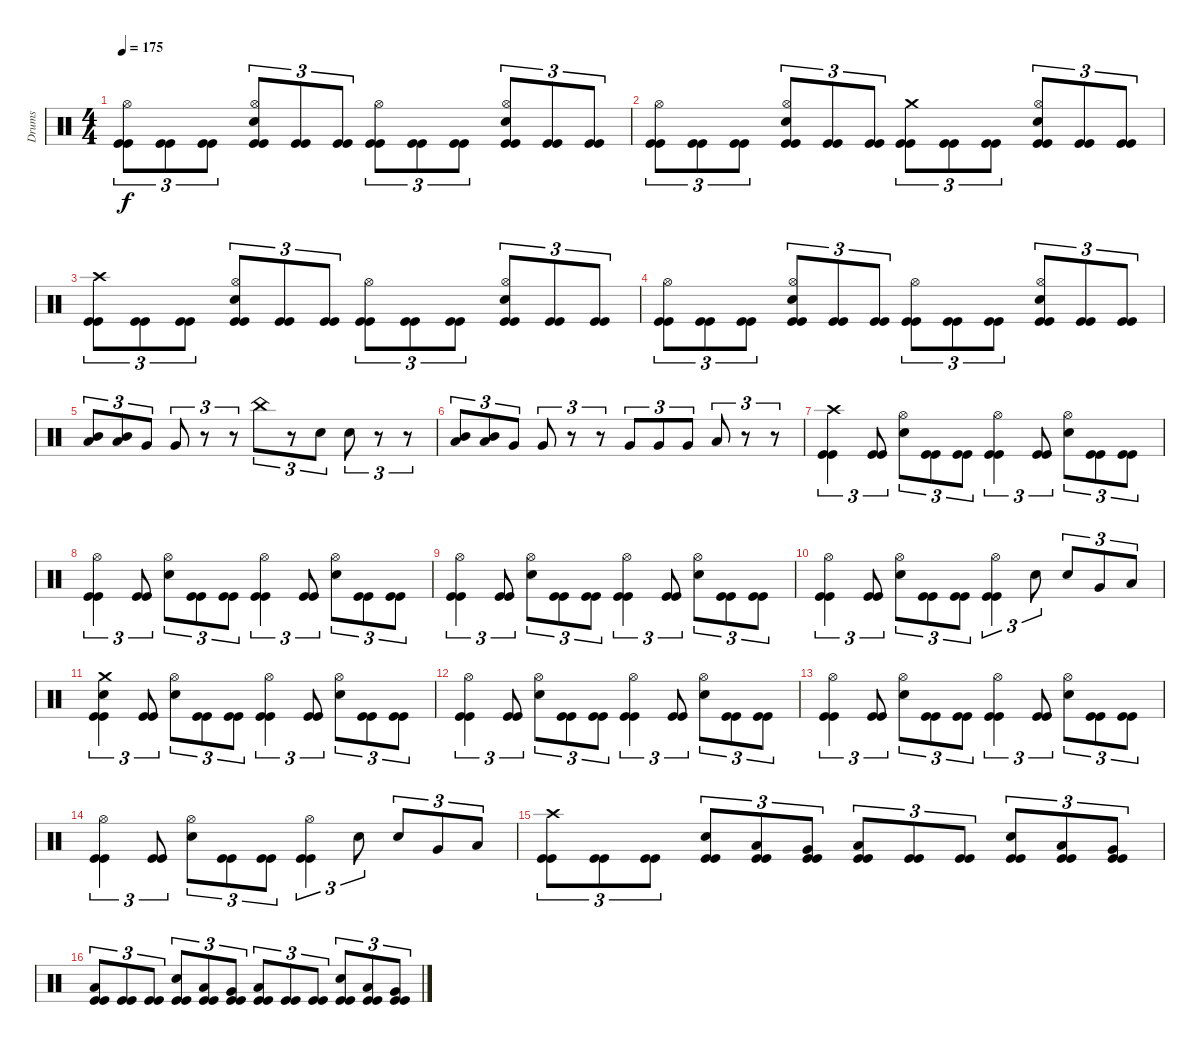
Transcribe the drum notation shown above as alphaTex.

\track ("Drums" "Drums") {instrument percussion}
\staff {score}
\articulation defaults
\ts (4 4)
\tempo 175
\clef neutral
\ks c
("Kick (hit)" "Kick (hit)" "Hi-Hat (open)").8{tu (3 2) dy f} ("Kick (hit)" "Kick (hit)").8{tu (3 2)} ("Kick (hit)" "Kick (hit)").8{tu (3 2)} ("Kick (hit)" "Kick (hit)" "Snare (hit) 2" "Hi-Hat (open)").8{tu (3 2)} ("Kick (hit)" "Kick (hit)").8{tu (3 2)} ("Kick (hit)" "Kick (hit)").8{tu (3 2)} ("Kick (hit)" "Kick (hit)" "Hi-Hat (open)").8{tu (3 2)} ("Kick (hit)" "Kick (hit)").8{tu (3 2)} ("Kick (hit)" "Kick (hit)").8{tu (3 2)} ("Kick (hit)" "Kick (hit)" "Snare (hit) 2" "Hi-Hat (open)").8{tu (3 2)} ("Kick (hit)" "Kick (hit)").8{tu (3 2)} ("Kick (hit)" "Kick (hit)").8{tu (3 2)} |
("Kick (hit)" "Kick (hit)" "Hi-Hat (open)").8{tu (3 2)} ("Kick (hit)" "Kick (hit)").8{tu (3 2)} ("Kick (hit)" "Kick (hit)").8{tu (3 2)} ("Kick (hit)" "Kick (hit)" "Snare (hit) 2" "Hi-Hat (open)").8{tu (3 2)} ("Kick (hit)" "Kick (hit)").8{tu (3 2)} ("Kick (hit)" "Kick (hit)").8{tu (3 2)} ("Kick (hit)" "Kick (hit)" "Crash medium (hit)").8{tu (3 2)} ("Kick (hit)" "Kick (hit)").8{tu (3 2)} ("Kick (hit)" "Kick (hit)").8{tu (3 2)} ("Kick (hit)" "Kick (hit)" "Snare (hit) 2" "Hi-Hat (open)").8{tu (3 2)} ("Kick (hit)" "Kick (hit)").8{tu (3 2)} ("Kick (hit)" "Kick (hit)").8{tu (3 2)} |
("Kick (hit)" "Kick (hit)" "Crash high (hit)").8{tu (3 2)} ("Kick (hit)" "Kick (hit)").8{tu (3 2)} ("Kick (hit)" "Kick (hit)").8{tu (3 2)} ("Kick (hit)" "Kick (hit)" "Snare (hit) 2" "Hi-Hat (open)").8{tu (3 2)} ("Kick (hit)" "Kick (hit)").8{tu (3 2)} ("Kick (hit)" "Kick (hit)").8{tu (3 2)} ("Kick (hit)" "Kick (hit)" "Hi-Hat (open)").8{tu (3 2)} ("Kick (hit)" "Kick (hit)").8{tu (3 2)} ("Kick (hit)" "Kick (hit)").8{tu (3 2)} ("Kick (hit)" "Kick (hit)" "Snare (hit) 2" "Hi-Hat (open)").8{tu (3 2)} ("Kick (hit)" "Kick (hit)").8{tu (3 2)} ("Kick (hit)" "Kick (hit)").8{tu (3 2)} |
("Kick (hit)" "Kick (hit)" "Hi-Hat (open)").8{tu (3 2)} ("Kick (hit)" "Kick (hit)").8{tu (3 2)} ("Kick (hit)" "Kick (hit)").8{tu (3 2)} ("Kick (hit)" "Kick (hit)" "Snare (hit) 2" "Hi-Hat (open)").8{tu (3 2)} ("Kick (hit)" "Kick (hit)").8{tu (3 2)} ("Kick (hit)" "Kick (hit)").8{tu (3 2)} ("Kick (hit)" "Kick (hit)" "Hi-Hat (open)").8{tu (3 2)} ("Kick (hit)" "Kick (hit)").8{tu (3 2)} ("Kick (hit)" "Kick (hit)").8{tu (3 2)} ("Kick (hit)" "Kick (hit)" "Snare (hit) 2" "Hi-Hat (open)").8{tu (3 2)} ("Kick (hit)" "Kick (hit)").8{tu (3 2)} ("Kick (hit)" "Kick (hit)").8{tu (3 2)} |
("Mid Tom (hit)" "Low Tom (hit)").8{tu (3 2)} ("Mid Tom (hit)" "Low Tom (hit)").8{tu (3 2)} "Very Low Tom (hit)".8{tu (3 2)} "Very Low Tom (hit)".8{tu (3 2)} r.8{tu (3 2)} r.8{tu (3 2)} "China (hit)".8{tu (3 2)} r.8{tu (3 2)} "Snare (hit) 2".8{tu (3 2)} "Snare (hit) 2".8{tu (3 2)} r.8{tu (3 2)} r.8{tu (3 2)} |
("Mid Tom (hit)" "Low Tom (hit)").8{tu (3 2)} ("Mid Tom (hit)" "Low Tom (hit)").8{tu (3 2)} "Very Low Tom (hit)".8{tu (3 2)} "Very Low Tom (hit)".8{tu (3 2)} r.8{tu (3 2)} r.8{tu (3 2)} "Very Low Tom (hit)".8{tu (3 2)} "Very Low Tom (hit)".8{tu (3 2)} "Very Low Tom (hit)".8{tu (3 2)} "Low Floor Tom (hit)".8{tu (3 2)} r.8{tu (3 2)} r.8{tu (3 2)} |
("Kick (hit)" "Kick (hit)" "Crash high (hit)").4{tu (3 2)} ("Kick (hit)" "Kick (hit)").8{tu (3 2)} ("Snare (hit) 2" "Hi-Hat (open)").8{tu (3 2)} ("Kick (hit)" "Kick (hit)").8{tu (3 2)} ("Kick (hit)" "Kick (hit)").8{tu (3 2)} ("Kick (hit)" "Kick (hit)" "Hi-Hat (open)").4{tu (3 2)} ("Kick (hit)" "Kick (hit)").8{tu (3 2)} ("Snare (hit) 2" "Hi-Hat (open)").8{tu (3 2)} ("Kick (hit)" "Kick (hit)").8{tu (3 2)} ("Kick (hit)" "Kick (hit)").8{tu (3 2)} |
("Kick (hit)" "Kick (hit)" "Hi-Hat (open)").4{tu (3 2)} ("Kick (hit)" "Kick (hit)").8{tu (3 2)} ("Snare (hit) 2" "Hi-Hat (open)").8{tu (3 2)} ("Kick (hit)" "Kick (hit)").8{tu (3 2)} ("Kick (hit)" "Kick (hit)").8{tu (3 2)} ("Kick (hit)" "Kick (hit)" "Hi-Hat (open)").4{tu (3 2)} ("Kick (hit)" "Kick (hit)").8{tu (3 2)} ("Snare (hit) 2" "Hi-Hat (open)").8{tu (3 2)} ("Kick (hit)" "Kick (hit)").8{tu (3 2)} ("Kick (hit)" "Kick (hit)").8{tu (3 2)} |
("Kick (hit)" "Kick (hit)" "Hi-Hat (open)").4{tu (3 2)} ("Kick (hit)" "Kick (hit)").8{tu (3 2)} ("Snare (hit) 2" "Hi-Hat (open)").8{tu (3 2)} ("Kick (hit)" "Kick (hit)").8{tu (3 2)} ("Kick (hit)" "Kick (hit)").8{tu (3 2)} ("Kick (hit)" "Kick (hit)" "Hi-Hat (open)").4{tu (3 2)} ("Kick (hit)" "Kick (hit)").8{tu (3 2)} ("Snare (hit) 2" "Hi-Hat (open)").8{tu (3 2)} ("Kick (hit)" "Kick (hit)").8{tu (3 2)} ("Kick (hit)" "Kick (hit)").8{tu (3 2)} |
("Kick (hit)" "Kick (hit)" "Hi-Hat (open)").4{tu (3 2)} ("Kick (hit)" "Kick (hit)").8{tu (3 2)} ("Snare (hit) 2" "Hi-Hat (open)").8{tu (3 2)} ("Kick (hit)" "Kick (hit)").8{tu (3 2)} ("Kick (hit)" "Kick (hit)").8{tu (3 2)} ("Kick (hit)" "Kick (hit)" "Hi-Hat (open)").4{tu (3 2)} "Snare (hit) 2".8{tu (3 2)} "Snare (hit) 2".8{tu (3 2)} "Very Low Tom (hit)".8{tu (3 2)} "Low Floor Tom (hit)".8{tu (3 2)} |
("Kick (hit)" "Kick (hit)" "Crash medium (hit)" "Snare (hit) 2").4{tu (3 2)} ("Kick (hit)" "Kick (hit)").8{tu (3 2)} ("Snare (hit) 2" "Hi-Hat (open)").8{tu (3 2)} ("Kick (hit)" "Kick (hit)").8{tu (3 2)} ("Kick (hit)" "Kick (hit)").8{tu (3 2)} ("Kick (hit)" "Kick (hit)" "Hi-Hat (open)").4{tu (3 2)} ("Kick (hit)" "Kick (hit)").8{tu (3 2)} ("Snare (hit) 2" "Hi-Hat (open)").8{tu (3 2)} ("Kick (hit)" "Kick (hit)").8{tu (3 2)} ("Kick (hit)" "Kick (hit)").8{tu (3 2)} |
("Kick (hit)" "Kick (hit)" "Hi-Hat (open)").4{tu (3 2)} ("Kick (hit)" "Kick (hit)").8{tu (3 2)} ("Snare (hit) 2" "Hi-Hat (open)").8{tu (3 2)} ("Kick (hit)" "Kick (hit)").8{tu (3 2)} ("Kick (hit)" "Kick (hit)").8{tu (3 2)} ("Kick (hit)" "Kick (hit)" "Hi-Hat (open)").4{tu (3 2)} ("Kick (hit)" "Kick (hit)").8{tu (3 2)} ("Snare (hit) 2" "Hi-Hat (open)").8{tu (3 2)} ("Kick (hit)" "Kick (hit)").8{tu (3 2)} ("Kick (hit)" "Kick (hit)").8{tu (3 2)} |
("Kick (hit)" "Kick (hit)" "Hi-Hat (open)").4{tu (3 2)} ("Kick (hit)" "Kick (hit)").8{tu (3 2)} ("Snare (hit) 2" "Hi-Hat (open)").8{tu (3 2)} ("Kick (hit)" "Kick (hit)").8{tu (3 2)} ("Kick (hit)" "Kick (hit)").8{tu (3 2)} ("Kick (hit)" "Kick (hit)" "Hi-Hat (open)").4{tu (3 2)} ("Kick (hit)" "Kick (hit)").8{tu (3 2)} ("Snare (hit) 2" "Hi-Hat (open)").8{tu (3 2)} ("Kick (hit)" "Kick (hit)").8{tu (3 2)} ("Kick (hit)" "Kick (hit)").8{tu (3 2)} |
("Kick (hit)" "Kick (hit)" "Hi-Hat (open)").4{tu (3 2)} ("Kick (hit)" "Kick (hit)").8{tu (3 2)} ("Snare (hit) 2" "Hi-Hat (open)").8{tu (3 2)} ("Kick (hit)" "Kick (hit)").8{tu (3 2)} ("Kick (hit)" "Kick (hit)").8{tu (3 2)} ("Kick (hit)" "Kick (hit)" "Hi-Hat (open)").4{tu (3 2)} "Snare (hit) 2".8{tu (3 2)} "Snare (hit) 2".8{tu (3 2)} "Very Low Tom (hit)".8{tu (3 2)} "Low Floor Tom (hit)".8{tu (3 2)} |
("Kick (hit)" "Kick (hit)" "Crash high (hit)").8{tu (3 2)} ("Kick (hit)" "Kick (hit)").8{tu (3 2)} ("Kick (hit)" "Kick (hit)").8{tu (3 2)} ("Kick (hit)" "Kick (hit)" "Snare (hit) 2").8{tu (3 2)} ("Kick (hit)" "Kick (hit)" "Low Tom (hit)").8{tu (3 2)} ("Kick (hit)" "Kick (hit)" "Very Low Tom (hit)").8{tu (3 2)} ("Kick (hit)" "Kick (hit)" "Low Floor Tom (hit)").8{tu (3 2)} ("Kick (hit)" "Kick (hit)").8{tu (3 2)} ("Kick (hit)" "Kick (hit)").8{tu (3 2)} ("Kick (hit)" "Kick (hit)" "Snare (hit) 2").8{tu (3 2)} ("Kick (hit)" "Kick (hit)" "Low Tom (hit)").8{tu (3 2)} ("Kick (hit)" "Kick (hit)" "Very Low Tom (hit)").8{tu (3 2)} |
("Kick (hit)" "Kick (hit)" "Low Floor Tom (hit)").8{tu (3 2)} ("Kick (hit)" "Kick (hit)").8{tu (3 2)} ("Kick (hit)" "Kick (hit)").8{tu (3 2)} ("Kick (hit)" "Kick (hit)" "Snare (hit) 2").8{tu (3 2)} ("Kick (hit)" "Kick (hit)" "Low Tom (hit)").8{tu (3 2)} ("Kick (hit)" "Kick (hit)" "Very Low Tom (hit)").8{tu (3 2)} ("Kick (hit)" "Kick (hit)" "Low Floor Tom (hit)").8{tu (3 2)} ("Kick (hit)" "Kick (hit)").8{tu (3 2)} ("Kick (hit)" "Kick (hit)").8{tu (3 2)} ("Kick (hit)" "Kick (hit)" "Snare (hit) 2").8{tu (3 2)} ("Kick (hit)" "Kick (hit)" "Low Tom (hit)").8{tu (3 2)} ("Kick (hit)" "Kick (hit)" "Very Low Tom (hit)").8{tu (3 2)}
